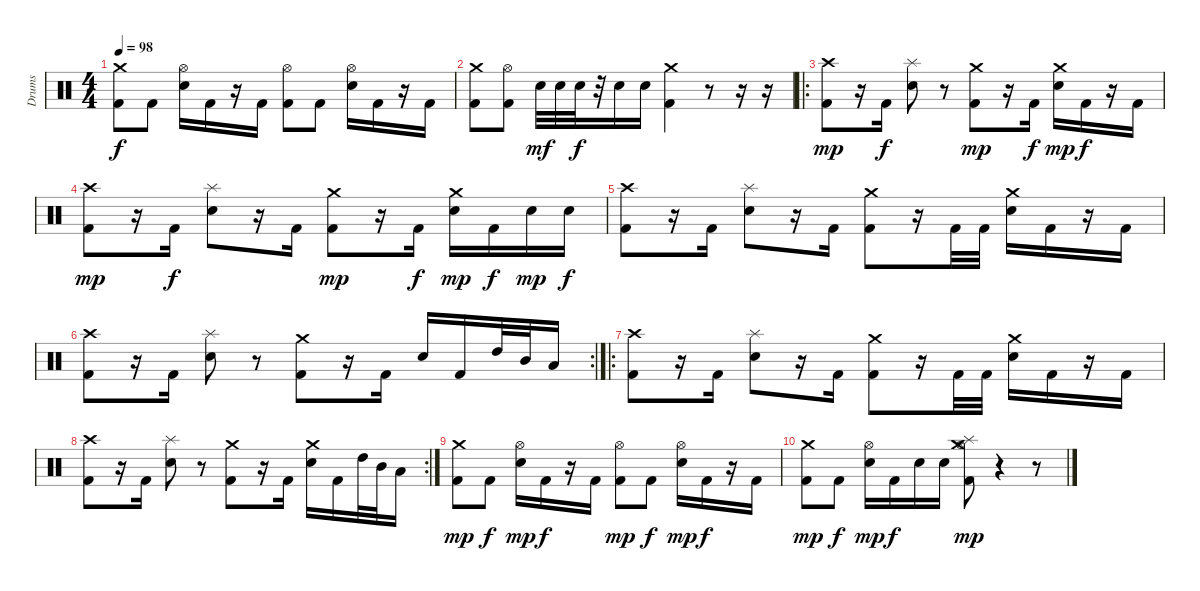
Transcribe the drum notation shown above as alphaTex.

\track ("Drums" "Drums") {instrument percussion}
\staff {score}
\articulation defaults
\ts (4 4)
\tempo 98
\clef neutral
\ks c
("Crash medium (hit)" "Kick (hit) 2").8{dy f} "Kick (hit) 2".8 ("Hi-Hat (open)" "Snare (hit) 2").16 "Kick (hit) 2".16 r.16 "Kick (hit) 2".16 ("Hi-Hat (open)" "Kick (hit) 2").8 "Kick (hit) 2".8 ("Hi-Hat (open)" "Snare (hit) 2").16 "Kick (hit) 2".16 r.16 "Kick (hit) 2".16 |
("Crash medium (hit)" "Kick (hit) 2").8 ("Hi-Hat (open)" "Kick (hit) 2").8 "Snare (hit) 2".32{dy mf} "Snare (hit) 2".32 "Snare (hit) 2".32{dy f} r.32 "Snare (hit) 2".16 "Snare (hit) 2".16 ("Crash medium (hit)" "Kick (hit) 2").4 r.8 r.16 r.16 |
\ro
("Crash high (hit)" "Kick (hit) 2").8{dy mp} r.16 "Kick (hit) 2".16{dy f} ("Splash (hit)" "Snare (hit) 2").8 r.8 ("Crash medium (hit)" "Kick (hit) 2").8{dy mp} r.16 "Kick (hit) 2".16{dy f} ("Crash medium (hit)" "Snare (hit) 2").16{dy mp} "Kick (hit) 2".16{dy f} r.16 "Kick (hit) 2".16 |
("Crash high (hit)" "Kick (hit) 2").8{dy mp} r.16 "Kick (hit) 2".16{dy f} ("Splash (hit)" "Snare (hit) 2").8 r.16 "Kick (hit) 2".16 ("Crash medium (hit)" "Kick (hit) 2").8{dy mp} r.16 "Kick (hit) 2".16{dy f} ("Crash medium (hit)" "Snare (hit) 2").16{dy mp} "Kick (hit) 2".16{dy f} "Snare (hit) 2".16{dy mp} "Snare (hit) 2".16{dy f} |
("Crash high (hit)" "Kick (hit) 2").8 r.16 "Kick (hit) 2".16 ("Splash (hit)" "Snare (hit) 2").8 r.16 "Kick (hit) 2".16 ("Crash medium (hit)" "Kick (hit) 2").8 r.16 "Kick (hit) 2".32 "Kick (hit) 2".32 ("Crash medium (hit)" "Snare (hit) 2").16 "Kick (hit) 2".16 r.16 "Kick (hit) 2".16 |
\rc 2
("Crash high (hit)" "Kick (hit) 2").8 r.16 "Kick (hit) 2".16 ("Splash (hit)" "Snare (hit) 2").8 r.8 ("Crash medium (hit)" "Kick (hit) 2").8 r.16 "Kick (hit) 2".16 "Snare (hit) 2".16 "Kick (hit) 2".16 "High Tom (hit)".32 "Mid Tom (hit)".32 "Low Tom (hit)".16 |
\ro
("Crash high (hit)" "Kick (hit) 2").8 r.16 "Kick (hit) 2".16 ("Splash (hit)" "Snare (hit) 2").8 r.16 "Kick (hit) 2".16 ("Crash medium (hit)" "Kick (hit) 2").8 r.16 "Kick (hit) 2".32 "Kick (hit) 2".32 ("Crash medium (hit)" "Snare (hit) 2").16 "Kick (hit) 2".16 r.16 "Kick (hit) 2".16 |
\rc 2
("Crash high (hit)" "Kick (hit) 2").8 r.16 "Kick (hit) 2".16 ("Splash (hit)" "Snare (hit) 2").8 r.8 ("Crash medium (hit)" "Kick (hit) 2").8 r.16 "Kick (hit) 2".16 ("Crash medium (hit)" "Snare (hit) 2").16 "Kick (hit) 2".16 "High Tom (hit)".32 "Mid Tom (hit)".32 "Low Tom (hit)".16 |
("Crash medium (hit)" "Kick (hit) 2").8{dy mp} "Kick (hit) 2".8{dy f} ("Hi-Hat (open)" "Snare (hit) 2").16{dy mp} "Kick (hit) 2".16{dy f} r.16 "Kick (hit) 2".16 ("Hi-Hat (open)" "Kick (hit) 2").8{dy mp} "Kick (hit) 2".8{dy f} ("Hi-Hat (open)" "Snare (hit) 2").16{dy mp} "Kick (hit) 2".16{dy f} r.16 "Kick (hit) 2".16 |
("Crash medium (hit)" "Kick (hit) 2").8{dy mp} "Kick (hit) 2".8{dy f} ("Hi-Hat (open)" "Snare (hit) 2").16{dy mp} "Kick (hit) 2".16{dy f} "Snare (hit) 2".16 "Snare (hit) 2".16 ("Hi-Hat (open)" "Crash medium (hit)" "Splash (hit)" "Kick (hit) 2").8{dy mp} r.4 r.8
